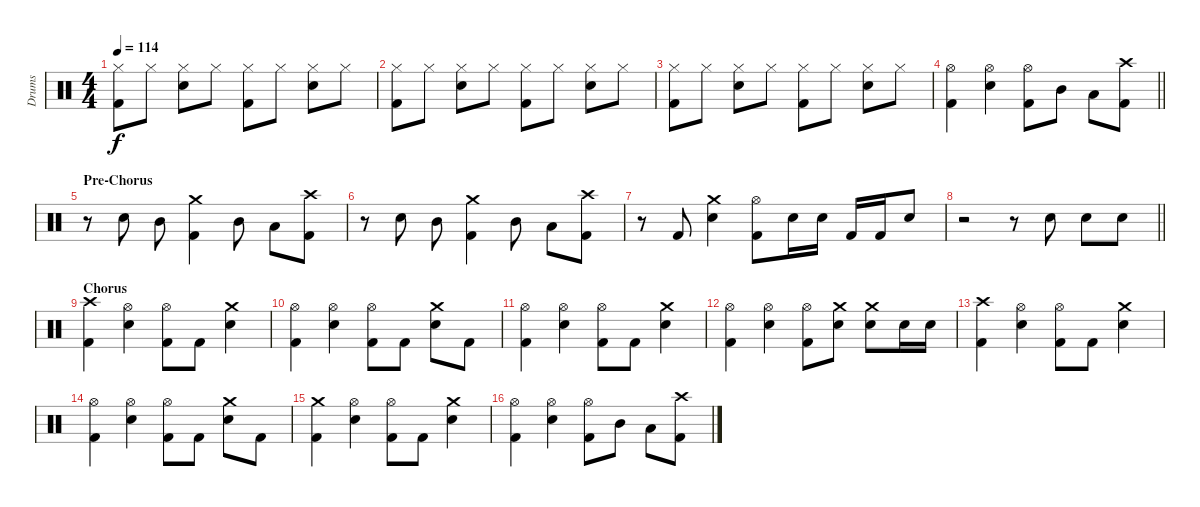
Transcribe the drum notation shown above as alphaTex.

\track ("Drums" "Drums") {instrument percussion}
\staff {score}
\articulation defaults
\ts (4 4)
\tempo 114
\clef neutral
\ks c
("Hi-Hat (closed)" "Kick (hit) 2").8{dy f} "Hi-Hat (closed)".8 ("Hi-Hat (closed)" "Snare (hit) 2").8 "Hi-Hat (closed)".8 ("Hi-Hat (closed)" "Kick (hit) 2").8 "Hi-Hat (closed)".8 ("Hi-Hat (closed)" "Snare (hit) 2").8 "Hi-Hat (closed)".8 |
("Hi-Hat (closed)" "Kick (hit) 2").8 "Hi-Hat (closed)".8 ("Hi-Hat (closed)" "Snare (hit) 2").8 "Hi-Hat (closed)".8 ("Hi-Hat (closed)" "Kick (hit) 2").8 "Hi-Hat (closed)".8 ("Hi-Hat (closed)" "Snare (hit) 2").8 "Hi-Hat (closed)".8 |
("Hi-Hat (closed)" "Kick (hit) 2").8 "Hi-Hat (closed)".8 ("Hi-Hat (closed)" "Snare (hit) 2").8 "Hi-Hat (closed)".8 ("Hi-Hat (closed)" "Kick (hit) 2").8 "Hi-Hat (closed)".8 ("Hi-Hat (closed)" "Snare (hit) 2").8 "Hi-Hat (closed)".8 |
\barLineRight lightlight
("Hi-Hat (open)" "Kick (hit) 2").4 ("Hi-Hat (open)" "Snare (hit) 2").4 ("Hi-Hat (open)" "Kick (hit) 2").8 "Mid Tom (hit)".8 "Low Tom (hit)".8 ("Crash high (hit)" "Kick (hit) 2").8 |
\section ("" "Pre-Chorus")
r.8 "Snare (hit) 2".8 "Mid Tom (hit)".8 ("Crash medium (hit)" "Kick (hit) 2").4 "Mid Tom (hit)".8 "Low Tom (hit)".8 ("Crash high (hit)" "Kick (hit) 2").8 |
r.8 "Snare (hit) 2".8 "Mid Tom (hit)".8 ("Crash medium (hit)" "Kick (hit) 2").4 "Mid Tom (hit)".8 "Low Tom (hit)".8 ("Crash high (hit)" "Kick (hit) 2").8 |
r.8 "Kick (hit) 2".8 ("Crash medium (hit)" "Snare (hit) 2").4 ("Hi-Hat (open)" "Kick (hit) 2").8 "Snare (hit) 2".16 "Snare (hit) 2".16 "Kick (hit) 2".16 "Kick (hit) 2".16 "Snare (hit) 2".8 |
\barLineRight lightlight
r.2 r.8 "Snare (hit) 2".8 "Snare (hit) 2".8 "Snare (hit) 2".8 |
\section ("" "Chorus")
("Crash high (hit)" "Kick (hit) 2").4 ("Hi-Hat (open)" "Snare (hit) 2").4 ("Hi-Hat (open)" "Kick (hit) 2").8 "Kick (hit) 2".8 ("Crash medium (hit)" "Snare (hit) 2").4 |
("Hi-Hat (open)" "Kick (hit) 2").4 ("Hi-Hat (open)" "Snare (hit) 2").4 ("Hi-Hat (open)" "Kick (hit) 2").8 "Kick (hit) 2".8 ("Crash medium (hit)" "Snare (hit) 2").8 "Kick (hit) 2".8 |
("Hi-Hat (open)" "Kick (hit) 2").4 ("Hi-Hat (open)" "Snare (hit) 2").4 ("Hi-Hat (open)" "Kick (hit) 2").8 "Kick (hit) 2".8 ("Crash medium (hit)" "Snare (hit) 2").4 |
("Hi-Hat (open)" "Kick (hit) 2").4 ("Hi-Hat (open)" "Snare (hit) 2").4 ("Hi-Hat (open)" "Kick (hit) 2").8 ("Crash medium (hit)" "Snare (hit) 2").8 ("Crash medium (hit)" "Snare (hit) 2").8 "Snare (hit) 2".16 "Snare (hit) 2".16 |
("Crash high (hit)" "Kick (hit) 2").4 ("Hi-Hat (open)" "Snare (hit) 2").4 ("Hi-Hat (open)" "Kick (hit) 2").8 "Kick (hit) 2".8 ("Crash medium (hit)" "Snare (hit) 2").4 |
("Hi-Hat (open)" "Kick (hit) 2").4 ("Hi-Hat (open)" "Snare (hit) 2").4 ("Hi-Hat (open)" "Kick (hit) 2").8 "Kick (hit) 2".8 ("Crash medium (hit)" "Snare (hit) 2").8 "Kick (hit) 2".8 |
("Crash medium (hit)" "Kick (hit) 2").4 ("Hi-Hat (open)" "Snare (hit) 2").4 ("Hi-Hat (open)" "Kick (hit) 2").8 "Kick (hit) 2".8 ("Crash medium (hit)" "Snare (hit) 2").4 |
("Hi-Hat (open)" "Kick (hit) 2").4 ("Hi-Hat (open)" "Snare (hit) 2").4 ("Hi-Hat (open)" "Kick (hit) 2").8 "Mid Tom (hit)".8 "Low Tom (hit)".8 ("Crash high (hit)" "Kick (hit) 2").8
